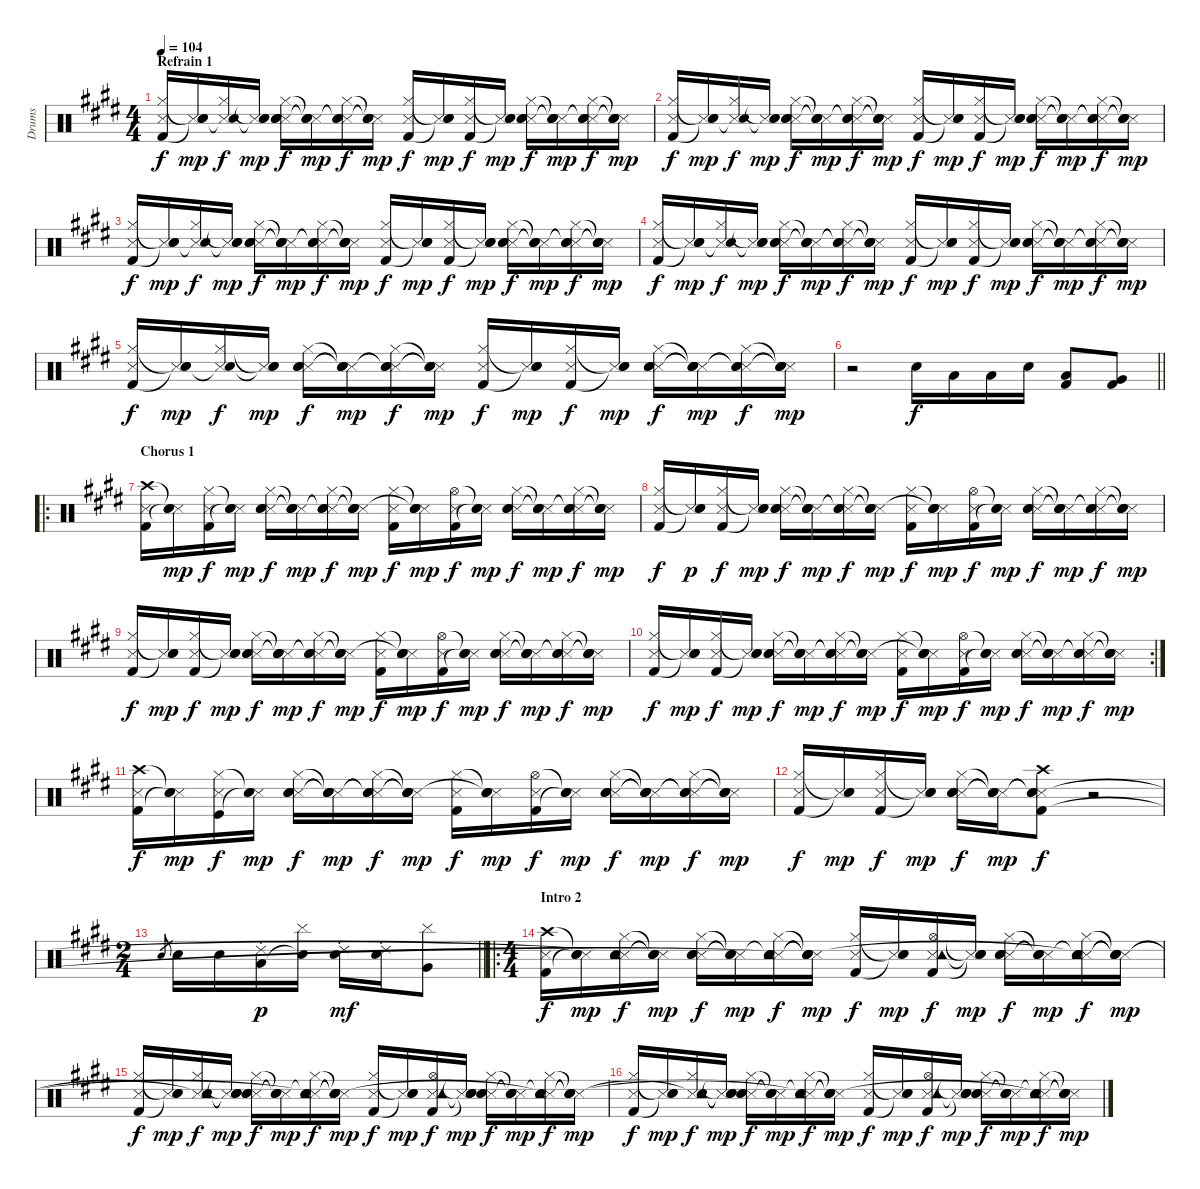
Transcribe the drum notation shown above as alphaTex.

\track ("Drums" "Drums") {instrument percussion}
\staff {score}
\articulation defaults
\ts (4 4)
\section ("" "Refrain 1")
\tempo 104
\clef neutral
\ks e
("Metronome (hit)" "Hi-Hat (closed)" "Kick (hit) 2").16{dy f} ("Metronome (hit)" "Snare (hit)"{t} "Snare (hit)"{t}).16{dy mp} ("Metronome (hit)" "Hi-Hat (closed)" "Snare (hit)"{t}).16{dy f} ("Metronome (hit)" "Snare (hit)"{t} "Snare (hit)"{t}).16{dy mp} ("Metronome (hit)" "Hi-Hat (closed)" "Hand Clap (hit)" "Electric Snare (hit)").16{dy f} ("Metronome (hit)" "Snare (hit)"{t} "Snare (hit)"{t} "Snare (hit)"{t}).16{dy mp} ("Metronome (hit)" "Hi-Hat (closed)" "Snare (hit)"{t} "Snare (hit)"{t}).16{dy f} ("Metronome (hit)" "Snare (hit)"{t} "Snare (hit)"{t} "Snare (hit)"{t}).16{dy mp} ("Metronome (hit)" "Hi-Hat (closed)" "Kick (hit) 2").16{dy f} ("Metronome (hit)" "Snare (hit)"{t} "Snare (hit)"{t}).16{dy mp} ("Metronome (hit)" "Hi-Hat (closed)" "Kick (hit) 2").16{dy f} ("Metronome (hit)" "Snare (hit)"{t} "Snare (hit)"{t}).16{dy mp} ("Metronome (hit)" "Hi-Hat (closed)" "Hand Clap (hit)" "Electric Snare (hit)").16{dy f} ("Metronome (hit)" "Snare (hit)"{t} "Snare (hit)"{t} "Snare (hit)"{t}).16{dy mp} ("Metronome (hit)" "Hi-Hat (closed)" "Snare (hit)"{t} "Snare (hit)"{t}).16{dy f} ("Metronome (hit)" "Snare (hit)"{t} "Snare (hit)"{t} "Snare (hit)"{t}).16{dy mp} |
("Metronome (hit)" "Hi-Hat (closed)" "Kick (hit) 2").16{dy f} ("Metronome (hit)" "Snare (hit)"{t} "Snare (hit)"{t}).16{dy mp} ("Metronome (hit)" "Hi-Hat (closed)" "Snare (hit)"{t}).16{dy f} ("Metronome (hit)" "Snare (hit)"{t} "Snare (hit)"{t}).16{dy mp} ("Metronome (hit)" "Hi-Hat (closed)" "Hand Clap (hit)" "Electric Snare (hit)").16{dy f} ("Metronome (hit)" "Snare (hit)"{t} "Snare (hit)"{t} "Snare (hit)"{t}).16{dy mp} ("Metronome (hit)" "Hi-Hat (closed)" "Snare (hit)"{t} "Snare (hit)"{t}).16{dy f} ("Metronome (hit)" "Snare (hit)"{t} "Snare (hit)"{t} "Snare (hit)"{t}).16{dy mp} ("Metronome (hit)" "Hi-Hat (closed)" "Kick (hit) 2").16{dy f} ("Metronome (hit)" "Snare (hit)"{t} "Snare (hit)"{t}).16{dy mp} ("Metronome (hit)" "Hi-Hat (closed)" "Kick (hit) 2").16{dy f} ("Metronome (hit)" "Snare (hit)"{t} "Snare (hit)"{t}).16{dy mp} ("Metronome (hit)" "Hi-Hat (closed)" "Hand Clap (hit)" "Electric Snare (hit)").16{dy f} ("Metronome (hit)" "Snare (hit)"{t} "Snare (hit)"{t} "Snare (hit)"{t}).16{dy mp} ("Metronome (hit)" "Hi-Hat (closed)" "Snare (hit)"{t} "Snare (hit)"{t}).16{dy f} ("Metronome (hit)" "Snare (hit)"{t} "Snare (hit)"{t} "Snare (hit)"{t}).16{dy mp} |
("Metronome (hit)" "Hi-Hat (closed)" "Kick (hit) 2").16{dy f} ("Metronome (hit)" "Snare (hit)"{t} "Snare (hit)"{t}).16{dy mp} ("Metronome (hit)" "Hi-Hat (closed)" "Snare (hit)"{t}).16{dy f} ("Metronome (hit)" "Snare (hit)"{t} "Snare (hit)"{t}).16{dy mp} ("Metronome (hit)" "Hi-Hat (closed)" "Hand Clap (hit)" "Electric Snare (hit)").16{dy f} ("Metronome (hit)" "Snare (hit)"{t} "Snare (hit)"{t} "Snare (hit)"{t}).16{dy mp} ("Metronome (hit)" "Hi-Hat (closed)" "Snare (hit)"{t} "Snare (hit)"{t}).16{dy f} ("Metronome (hit)" "Snare (hit)"{t} "Snare (hit)"{t} "Snare (hit)"{t}).16{dy mp} ("Metronome (hit)" "Hi-Hat (closed)" "Kick (hit) 2").16{dy f} ("Metronome (hit)" "Snare (hit)"{t} "Snare (hit)"{t}).16{dy mp} ("Metronome (hit)" "Hi-Hat (closed)" "Kick (hit) 2").16{dy f} ("Metronome (hit)" "Snare (hit)"{t} "Snare (hit)"{t}).16{dy mp} ("Metronome (hit)" "Hi-Hat (closed)" "Hand Clap (hit)" "Electric Snare (hit)").16{dy f} ("Metronome (hit)" "Snare (hit)"{t} "Snare (hit)"{t} "Snare (hit)"{t}).16{dy mp} ("Metronome (hit)" "Hi-Hat (closed)" "Snare (hit)"{t} "Snare (hit)"{t}).16{dy f} ("Metronome (hit)" "Snare (hit)"{t} "Snare (hit)"{t} "Snare (hit)"{t}).16{dy mp} |
("Metronome (hit)" "Hi-Hat (closed)" "Kick (hit) 2").16{dy f} ("Metronome (hit)" "Snare (hit)"{t} "Snare (hit)"{t}).16{dy mp} ("Metronome (hit)" "Hi-Hat (closed)" "Snare (hit)"{t}).16{dy f} ("Metronome (hit)" "Snare (hit)"{t} "Snare (hit)"{t}).16{dy mp} ("Metronome (hit)" "Hi-Hat (closed)" "Hand Clap (hit)" "Electric Snare (hit)").16{dy f} ("Metronome (hit)" "Snare (hit)"{t} "Snare (hit)"{t} "Snare (hit)"{t}).16{dy mp} ("Metronome (hit)" "Hi-Hat (closed)" "Snare (hit)"{t} "Snare (hit)"{t}).16{dy f} ("Metronome (hit)" "Snare (hit)"{t} "Snare (hit)"{t} "Snare (hit)"{t}).16{dy mp} ("Metronome (hit)" "Hi-Hat (closed)" "Kick (hit) 2").16{dy f} ("Metronome (hit)" "Snare (hit)"{t} "Snare (hit)"{t}).16{dy mp} ("Metronome (hit)" "Hi-Hat (closed)" "Kick (hit) 2").16{dy f} ("Metronome (hit)" "Snare (hit)"{t} "Snare (hit)"{t}).16{dy mp} ("Metronome (hit)" "Hi-Hat (closed)" "Hand Clap (hit)" "Electric Snare (hit)").16{dy f} ("Metronome (hit)" "Snare (hit)"{t} "Snare (hit)"{t} "Snare (hit)"{t}).16{dy mp} ("Metronome (hit)" "Hi-Hat (closed)" "Snare (hit)"{t} "Snare (hit)"{t}).16{dy f} ("Metronome (hit)" "Snare (hit)"{t} "Snare (hit)"{t} "Snare (hit)"{t}).16{dy mp} |
("Metronome (hit)" "Hi-Hat (closed)" "Kick (hit) 2").16{dy f} ("Metronome (hit)" "Snare (hit)"{t} "Snare (hit)"{t}).16{dy mp} ("Metronome (hit)" "Hi-Hat (closed)" "Snare (hit)"{t}).16{dy f} ("Metronome (hit)" "Snare (hit)"{t} "Snare (hit)"{t}).16{dy mp} ("Metronome (hit)" "Hi-Hat (closed)" "Hand Clap (hit)" "Electric Snare (hit)").16{dy f} ("Metronome (hit)" "Snare (hit)"{t} "Snare (hit)"{t} "Snare (hit)"{t}).16{dy mp} ("Metronome (hit)" "Hi-Hat (closed)" "Snare (hit)"{t} "Snare (hit)"{t}).16{dy f} ("Metronome (hit)" "Snare (hit)"{t} "Snare (hit)"{t} "Snare (hit)"{t}).16{dy mp} ("Metronome (hit)" "Hi-Hat (closed)" "Kick (hit) 2").16{dy f} ("Metronome (hit)" "Snare (hit)"{t} "Snare (hit)"{t}).16{dy mp} ("Metronome (hit)" "Hi-Hat (closed)" "Kick (hit) 2").16{dy f} ("Metronome (hit)" "Snare (hit)"{t} "Snare (hit)"{t}).16{dy mp} ("Metronome (hit)" "Hi-Hat (closed)" "Hand Clap (hit)" "Electric Snare (hit)").16{dy f} ("Metronome (hit)" "Snare (hit)"{t} "Snare (hit)"{t} "Snare (hit)"{t}).16{dy mp} ("Metronome (hit)" "Hi-Hat (closed)" "Snare (hit)"{t} "Snare (hit)"{t}).16{dy f} ("Metronome (hit)" "Snare (hit)"{t} "Snare (hit)"{t} "Snare (hit)"{t}).16{dy mp} |
\barLineRight lightlight
r.2 "Electric Snare (hit)".16{dy f} "Low Tom (hit)".16 "Low Tom (hit)".16 "Electric Snare (hit)".16 ("Low Tom (hit)" "Kick (hit) 2").8 ("Very Low Tom (hit)" "Kick (hit) 2").8 |
\ro
\section ("" "Chorus 1")
("Metronome (hit)" "Crash high (hit)" "Kick (hit) 2").16 ("Metronome (hit)" "Snare (hit)"{t} "Snare (hit)"{t}).16{dy mp} ("Metronome (hit)" "Hi-Hat (closed)" "Kick (hit) 2").16{dy f} ("Metronome (hit)" "Snare (hit)"{t} "Snare (hit)"{t}).16{dy mp} ("Metronome (hit)" "Hi-Hat (closed)" "Hand Clap (hit)" "Electric Snare (hit)").16{dy f} ("Metronome (hit)" "Snare (hit)"{t} "Snare (hit)"{t} "Snare (hit)"{t}).16{dy mp} ("Metronome (hit)" "Hi-Hat (closed)" "Snare (hit)"{t} "Snare (hit)"{t}).16{dy f} ("Metronome (hit)" "Snare (hit)"{t} "Snare (hit)"{t} "Electric Snare (hit)"{t}).16{dy mp} ("Metronome (hit)" "Hi-Hat (closed)" "Kick (hit) 2").16{dy f} ("Metronome (hit)" "Snare (hit)"{t} "Electric Snare (hit)" "Snare (hit)"{t}).16{dy mp} ("Metronome (hit)" "Hi-Hat (open)" "Kick (hit) 2").16{dy f} ("Metronome (hit)" "Snare (hit)"{t} "Snare (hit)"{t}).16{dy mp} ("Metronome (hit)" "Hi-Hat (closed)" "Hand Clap (hit)" "Electric Snare (hit)").16{dy f} ("Metronome (hit)" "Snare (hit)"{t} "Snare (hit)"{t} "Snare (hit)"{t}).16{dy mp} ("Metronome (hit)" "Hi-Hat (closed)" "Snare (hit)"{t} "Snare (hit)"{t}).16{dy f} ("Metronome (hit)" "Snare (hit)"{t} "Snare (hit)"{t} "Snare (hit)"{t}).16{dy mp} |
("Metronome (hit)" "Hi-Hat (closed)" "Kick (hit) 2").16{dy f} ("Metronome (hit)" "Snare (hit)"{t} "Snare (hit)"{t}).16{dy p} ("Metronome (hit)" "Hi-Hat (closed)" "Kick (hit) 2").16{dy f} ("Metronome (hit)" "Snare (hit)"{t} "Snare (hit)"{t}).16{dy mp} ("Metronome (hit)" "Hi-Hat (closed)" "Hand Clap (hit)" "Electric Snare (hit)").16{dy f} ("Metronome (hit)" "Snare (hit)"{t} "Snare (hit)"{t} "Snare (hit)"{t}).16{dy mp} ("Metronome (hit)" "Hi-Hat (closed)" "Snare (hit)"{t} "Snare (hit)"{t}).16{dy f} ("Metronome (hit)" "Snare (hit)"{t} "Snare (hit)"{t} "Electric Snare (hit)"{t}).16{dy mp} ("Metronome (hit)" "Hi-Hat (closed)" "Kick (hit) 2").16{dy f} ("Metronome (hit)" "Snare (hit)"{t} "Electric Snare (hit)" "Snare (hit)"{t}).16{dy mp} ("Metronome (hit)" "Hi-Hat (open)" "Kick (hit) 2").16{dy f} ("Metronome (hit)" "Snare (hit)"{t} "Snare (hit)"{t}).16{dy mp} ("Metronome (hit)" "Hi-Hat (closed)" "Hand Clap (hit)" "Electric Snare (hit)").16{dy f} ("Metronome (hit)" "Snare (hit)"{t} "Snare (hit)"{t} "Snare (hit)"{t}).16{dy mp} ("Metronome (hit)" "Hi-Hat (closed)" "Snare (hit)"{t} "Snare (hit)"{t}).16{dy f} ("Metronome (hit)" "Snare (hit)"{t} "Snare (hit)"{t} "Snare (hit)"{t}).16{dy mp} |
("Metronome (hit)" "Hi-Hat (closed)" "Kick (hit) 2").16{dy f} ("Metronome (hit)" "Snare (hit)"{t} "Snare (hit)"{t}).16{dy mp} ("Metronome (hit)" "Hi-Hat (closed)" "Kick (hit) 2").16{dy f} ("Metronome (hit)" "Snare (hit)"{t} "Snare (hit)"{t}).16{dy mp} ("Metronome (hit)" "Hi-Hat (closed)" "Hand Clap (hit)" "Electric Snare (hit)").16{dy f} ("Metronome (hit)" "Snare (hit)"{t} "Snare (hit)"{t} "Snare (hit)"{t}).16{dy mp} ("Metronome (hit)" "Hi-Hat (closed)" "Snare (hit)"{t} "Snare (hit)"{t}).16{dy f} ("Metronome (hit)" "Snare (hit)"{t} "Snare (hit)"{t} "Snare (hit)"{t}).16{dy mp} ("Metronome (hit)" "Hi-Hat (closed)" "Kick (hit) 2").16{dy f} ("Metronome (hit)" "Snare (hit)"{t} "Electric Snare (hit)" "Snare (hit)"{t}).16{dy mp} ("Metronome (hit)" "Hi-Hat (open)" "Kick (hit) 2").16{dy f} ("Metronome (hit)" "Snare (hit)"{t} "Snare (hit)"{t}).16{dy mp} ("Metronome (hit)" "Hi-Hat (closed)" "Hand Clap (hit)" "Electric Snare (hit)").16{dy f} ("Metronome (hit)" "Snare (hit)"{t} "Snare (hit)"{t} "Snare (hit)"{t}).16{dy mp} ("Metronome (hit)" "Hi-Hat (closed)" "Snare (hit)"{t} "Snare (hit)"{t}).16{dy f} ("Metronome (hit)" "Snare (hit)"{t} "Snare (hit)"{t} "Snare (hit)"{t}).16{dy mp} |
\rc 2
("Metronome (hit)" "Hi-Hat (closed)" "Kick (hit) 2").16{dy f} ("Metronome (hit)" "Snare (hit)"{t} "Snare (hit)"{t}).16{dy mp} ("Metronome (hit)" "Hi-Hat (closed)" "Kick (hit) 2").16{dy f} ("Metronome (hit)" "Snare (hit)"{t} "Snare (hit)"{t}).16{dy mp} ("Metronome (hit)" "Hi-Hat (closed)" "Hand Clap (hit)" "Electric Snare (hit)").16{dy f} ("Metronome (hit)" "Snare (hit)"{t} "Snare (hit)"{t} "Snare (hit)"{t}).16{dy mp} ("Metronome (hit)" "Hi-Hat (closed)" "Snare (hit)"{t} "Snare (hit)"{t}).16{dy f} ("Metronome (hit)" "Snare (hit)"{t} "Snare (hit)"{t} "Snare (hit)"{t}).16{dy mp} ("Metronome (hit)" "Hi-Hat (closed)" "Kick (hit) 2").16{dy f} ("Metronome (hit)" "Snare (hit)"{t} "Electric Snare (hit)" "Snare (hit)"{t}).16{dy mp} ("Metronome (hit)" "Hi-Hat (open)" "Kick (hit) 2").16{dy f} ("Metronome (hit)" "Snare (hit)"{t} "Snare (hit)"{t}).16{dy mp} ("Metronome (hit)" "Hi-Hat (closed)" "Hand Clap (hit)" "Electric Snare (hit)").16{dy f} ("Metronome (hit)" "Snare (hit)"{t} "Snare (hit)"{t} "Snare (hit)"{t}).16{dy mp} ("Metronome (hit)" "Hi-Hat (closed)" "Snare (hit)"{t} "Snare (hit)"{t}).16{dy f} ("Metronome (hit)" "Snare (hit)"{t} "Snare (hit)"{t} "Snare (hit)"{t}).16{dy mp} |
("Metronome (hit)" "Crash high (hit)" "Kick (hit) 2").16{dy f} ("Metronome (hit)" "Snare (hit)"{t} "Snare (hit)"{t}).16{dy mp} ("Metronome (hit)" "Hi-Hat (closed)" "Kick (hit)").16{dy f} ("Metronome (hit)" "Snare (hit)"{t} "Snare (hit)"{t}).16{dy mp} ("Metronome (hit)" "Hi-Hat (closed)" "Hand Clap (hit)" "Electric Snare (hit)").16{dy f} ("Metronome (hit)" "Snare (hit)"{t} "Snare (hit)"{t} "Snare (hit)"{t}).16{dy mp} ("Metronome (hit)" "Hi-Hat (closed)" "Snare (hit)"{t} "Snare (hit)"{t}).16{dy f} ("Metronome (hit)" "Snare (hit)"{t} "Snare (hit)"{t} "Snare (hit)"{t}).16{dy mp} ("Metronome (hit)" "Hi-Hat (closed)" "Kick (hit) 2").16{dy f} ("Metronome (hit)" "Snare (hit)"{t} "Electric Snare (hit)" "Snare (hit)"{t}).16{dy mp} ("Metronome (hit)" "Hi-Hat (open)" "Kick (hit) 2").16{dy f} ("Metronome (hit)" "Snare (hit)"{t} "Snare (hit)"{t}).16{dy mp} ("Metronome (hit)" "Hi-Hat (closed)" "Hand Clap (hit)" "Electric Snare (hit)").16{dy f} ("Metronome (hit)" "Snare (hit)"{t} "Snare (hit)"{t} "Snare (hit)"{t}).16{dy mp} ("Metronome (hit)" "Hi-Hat (closed)" "Snare (hit)"{t} "Snare (hit)"{t}).16{dy f} ("Metronome (hit)" "Snare (hit)"{t} "Snare (hit)"{t} "Snare (hit)"{t}).16{dy mp} |
("Metronome (hit)" "Hi-Hat (closed)" "Kick (hit) 2").16{dy f} ("Metronome (hit)" "Snare (hit)"{t} "Snare (hit)"{t}).16{dy mp} ("Metronome (hit)" "Hi-Hat (closed)" "Kick (hit) 2").16{dy f} ("Metronome (hit)" "Snare (hit)"{t} "Snare (hit)"{t}).16{dy mp} ("Metronome (hit)" "Hi-Hat (closed)" "Hand Clap (hit)" "Electric Snare (hit)").16{dy f} ("Metronome (hit)" "Snare (hit)"{t} "Snare (hit)"{t} "Snare (hit)"{t}).16{dy mp} ("Metronome (hit)" "Crash high (hit)" "Snare (hit)"{t} "Snare (hit)"{t} "Kick (hit) 2").8{dy f} r.2 |
\ts (2 4)
\barLineRight lightlight "Electric Snare (hit)".8{gr} "Electric Snare (hit)".16 "Electric Snare (hit)".16
("Ride (choke) 2" "Low Tom (hit)").16{dy p} ("Cymbal (hit)" "Snare (hit)"{t}).16 ("Ride (choke) 2" "Electric Snare (hit)").16{dy mf} ("Ride (choke) 2" "Electric Snare (hit)").16 ("Cymbal (hit)" "Very Low Tom (hit)").8 |
\ro
\ts (4 4)
\section ("" "Intro 2")
("Metronome (hit)" "Crash high (hit)" "Kick (hit) 2").16{dy f} ("Metronome (hit)" "Snare (hit)"{t} "Snare (hit)"{t}).16{dy mp} ("Metronome (hit)" "Hi-Hat (closed)" "Tambourine (hit)" "Snare (hit)"{t}).16{dy f} ("Metronome (hit)" "Snare (hit)"{t} "Snare (hit)"{t} "Snare (hit)"{t}).16{dy mp} ("Metronome (hit)" "Hi-Hat (closed)" "Hand Clap (hit)" "Electric Snare (hit)").16{dy f} ("Metronome (hit)" "Snare (hit)"{t} "Snare (hit)"{t} "Snare (hit)"{t}).16{dy mp} ("Metronome (hit)" "Hi-Hat (closed)" "Tambourine (hit)" "Snare (hit)"{t} "Snare (hit)"{t}).16{dy f} ("Metronome (hit)" "Snare (hit)"{t} "Snare (hit)"{t} "Snare (hit)"{t} "Snare (hit)"{t}).16{dy mp} ("Metronome (hit)" "Hi-Hat (closed)" "Kick (hit) 2").16{dy f} ("Metronome (hit)" "Snare (hit)"{t} "Snare (hit)"{t}).16{dy mp} ("Metronome (hit)" "Hi-Hat (open)" "Tambourine (hit)" "Kick (hit) 2").16{dy f} ("Metronome (hit)" "Snare (hit)"{t} "Snare (hit)"{t} "Snare (hit)"{t}).16{dy mp} ("Metronome (hit)" "Hi-Hat (closed)" "Hand Clap (hit)" "Electric Snare (hit)").16{dy f} ("Metronome (hit)" "Snare (hit)"{t} "Snare (hit)"{t} "Snare (hit)"{t}).16{dy mp} ("Metronome (hit)" "Hi-Hat (closed)" "Tambourine (hit)" "Snare (hit)"{t} "Snare (hit)"{t}).16{dy f} ("Metronome (hit)" "Snare (hit)"{t} "Snare (hit)"{t} "Snare (hit)"{t} "Snare (hit)"{t}).16{dy mp} |
("Metronome (hit)" "Hi-Hat (closed)" "Kick (hit) 2").16{dy f} ("Metronome (hit)" "Snare (hit)"{t} "Snare (hit)"{t}).16{dy mp} ("Metronome (hit)" "Hi-Hat (closed)" "Tambourine (hit)" "Snare (hit)"{t}).16{dy f} ("Metronome (hit)" "Snare (hit)"{t} "Snare (hit)"{t} "Snare (hit)"{t}).16{dy mp} ("Metronome (hit)" "Hi-Hat (closed)" "Hand Clap (hit)" "Electric Snare (hit)").16{dy f} ("Metronome (hit)" "Snare (hit)"{t} "Snare (hit)"{t} "Snare (hit)"{t}).16{dy mp} ("Metronome (hit)" "Hi-Hat (closed)" "Tambourine (hit)" "Snare (hit)"{t} "Snare (hit)"{t}).16{dy f} ("Metronome (hit)" "Snare (hit)"{t} "Snare (hit)"{t} "Snare (hit)"{t} "Snare (hit)"{t}).16{dy mp} ("Metronome (hit)" "Hi-Hat (closed)" "Kick (hit) 2").16{dy f} ("Metronome (hit)" "Snare (hit)"{t} "Snare (hit)"{t}).16{dy mp} ("Metronome (hit)" "Hi-Hat (open)" "Tambourine (hit)" "Kick (hit) 2").16{dy f} ("Metronome (hit)" "Snare (hit)"{t} "Snare (hit)"{t} "Snare (hit)"{t}).16{dy mp} ("Metronome (hit)" "Hi-Hat (closed)" "Hand Clap (hit)" "Electric Snare (hit)").16{dy f} ("Metronome (hit)" "Snare (hit)"{t} "Snare (hit)"{t} "Snare (hit)"{t}).16{dy mp} ("Metronome (hit)" "Hi-Hat (closed)" "Tambourine (hit)" "Snare (hit)"{t} "Snare (hit)"{t}).16{dy f} ("Metronome (hit)" "Snare (hit)"{t} "Snare (hit)"{t} "Snare (hit)"{t} "Snare (hit)"{t}).16{dy mp} |
("Metronome (hit)" "Hi-Hat (closed)" "Kick (hit) 2").16{dy f} ("Metronome (hit)" "Snare (hit)"{t} "Snare (hit)"{t}).16{dy mp} ("Metronome (hit)" "Hi-Hat (closed)" "Tambourine (hit)" "Snare (hit)"{t}).16{dy f} ("Metronome (hit)" "Snare (hit)"{t} "Snare (hit)"{t} "Snare (hit)"{t}).16{dy mp} ("Metronome (hit)" "Hi-Hat (closed)" "Hand Clap (hit)" "Electric Snare (hit)").16{dy f} ("Metronome (hit)" "Snare (hit)"{t} "Snare (hit)"{t} "Snare (hit)"{t}).16{dy mp} ("Metronome (hit)" "Hi-Hat (closed)" "Tambourine (hit)" "Snare (hit)"{t} "Snare (hit)"{t}).16{dy f} ("Metronome (hit)" "Snare (hit)"{t} "Snare (hit)"{t} "Snare (hit)"{t} "Snare (hit)"{t}).16{dy mp} ("Metronome (hit)" "Hi-Hat (closed)" "Kick (hit) 2").16{dy f} ("Metronome (hit)" "Snare (hit)"{t} "Snare (hit)"{t}).16{dy mp} ("Metronome (hit)" "Hi-Hat (open)" "Tambourine (hit)" "Kick (hit) 2").16{dy f} ("Metronome (hit)" "Snare (hit)"{t} "Snare (hit)"{t} "Snare (hit)"{t}).16{dy mp} ("Metronome (hit)" "Hi-Hat (closed)" "Hand Clap (hit)" "Electric Snare (hit)").16{dy f} ("Metronome (hit)" "Snare (hit)"{t} "Snare (hit)"{t} "Snare (hit)"{t}).16{dy mp} ("Metronome (hit)" "Hi-Hat (closed)" "Tambourine (hit)" "Snare (hit)"{t} "Snare (hit)"{t}).16{dy f} ("Metronome (hit)" "Snare (hit)"{t} "Snare (hit)"{t} "Snare (hit)"{t} "Snare (hit)"{t}).16{dy mp}
